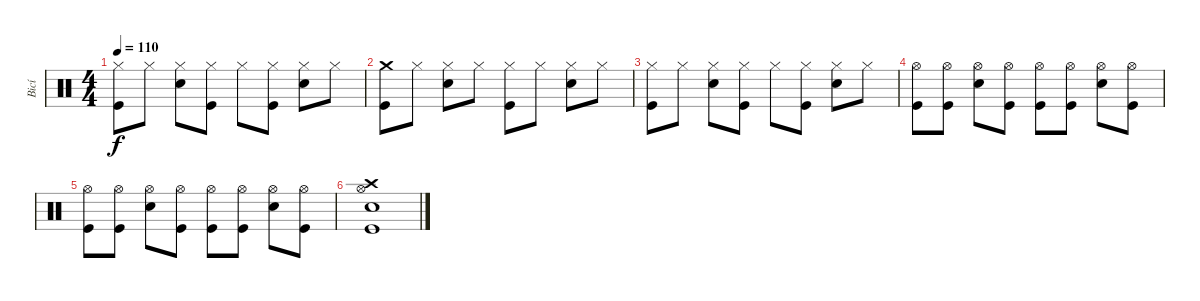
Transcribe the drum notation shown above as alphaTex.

\track ("Bicí" "Bicí") {instrument percussion}
\staff
\articulation defaults
\ts (4 4)
\tempo 110
\clef neutral
\ks c
("Hi-Hat (closed)" "Kick (hit)").8{dy f} "Hi-Hat (closed)".8 ("Hi-Hat (closed)" "Snare (hit) 2").8 ("Hi-Hat (closed)" "Kick (hit)").8 "Hi-Hat (closed)".8 ("Hi-Hat (closed)" "Kick (hit)").8 ("Hi-Hat (closed)" "Snare (hit) 2").8 "Hi-Hat (closed)".8 |
("Crash medium (hit)" "Kick (hit)").8 "Hi-Hat (closed)".8 ("Hi-Hat (closed)" "Snare (hit) 2").8 "Hi-Hat (closed)".8 ("Hi-Hat (closed)" "Kick (hit)").8 "Hi-Hat (closed)".8 ("Hi-Hat (closed)" "Snare (hit) 2").8 "Hi-Hat (closed)".8 |
("Hi-Hat (closed)" "Kick (hit)").8 "Hi-Hat (closed)".8 ("Hi-Hat (closed)" "Snare (hit) 2").8 ("Hi-Hat (closed)" "Kick (hit)").8 "Hi-Hat (closed)".8 ("Hi-Hat (closed)" "Kick (hit)").8 ("Hi-Hat (closed)" "Snare (hit) 2").8 "Hi-Hat (closed)".8 |
("Hi-Hat (open)" "Kick (hit)").8 ("Hi-Hat (open)" "Kick (hit)").8 ("Hi-Hat (open)" "Snare (hit) 2").8 ("Hi-Hat (open)" "Kick (hit)").8 ("Hi-Hat (open)" "Kick (hit)").8 ("Hi-Hat (open)" "Kick (hit)").8 ("Hi-Hat (open)" "Snare (hit) 2").8 ("Hi-Hat (open)" "Kick (hit)").8 |
("Hi-Hat (open)" "Kick (hit)").8 ("Hi-Hat (open)" "Kick (hit)").8 ("Hi-Hat (open)" "Snare (hit) 2").8 ("Hi-Hat (open)" "Kick (hit)").8 ("Hi-Hat (open)" "Kick (hit)").8 ("Hi-Hat (open)" "Kick (hit)").8 ("Hi-Hat (open)" "Snare (hit) 2").8 ("Hi-Hat (open)" "Kick (hit)").8 |
("Crash high (hit)" "Hi-Hat (open)" "Kick (hit)" "Snare (hit) 2").1
